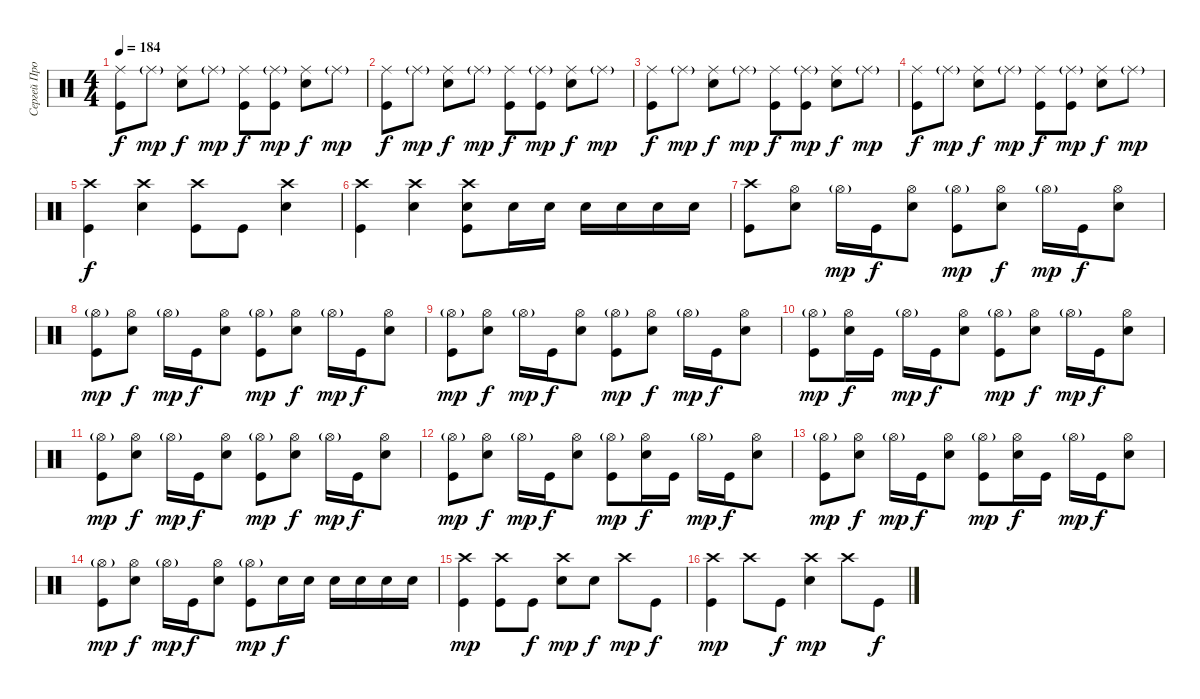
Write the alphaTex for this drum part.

\track ("Сергей Прокофьев" "Сергей Про") {instrument percussion}
\staff {score}
\articulation defaults
\ts (4 4)
\tempo 184
\clef neutral
\ks c
("Ride (middle)" "Kick (hit)").8{dy f} "Ride (middle)"{g}.8{dy mp} ("Ride (middle)" "Electric Snare (hit)").8{dy f} "Ride (middle)"{g}.8{dy mp} ("Ride (middle)" "Kick (hit)").8{dy f} ("Ride (middle)"{g} "Kick (hit)").8{dy mp} ("Ride (middle)" "Electric Snare (hit)").8{dy f} "Ride (middle)"{g}.8{dy mp} |
("Ride (middle)" "Kick (hit)").8{dy f} "Ride (middle)"{g}.8{dy mp} ("Ride (middle)" "Electric Snare (hit)").8{dy f} "Ride (middle)"{g}.8{dy mp} ("Ride (middle)" "Kick (hit)").8{dy f} ("Ride (middle)"{g} "Kick (hit)").8{dy mp} ("Ride (middle)" "Electric Snare (hit)").8{dy f} "Ride (middle)"{g}.8{dy mp} |
("Ride (middle)" "Kick (hit)").8{dy f} "Ride (middle)"{g}.8{dy mp} ("Ride (middle)" "Electric Snare (hit)").8{dy f} "Ride (middle)"{g}.8{dy mp} ("Ride (middle)" "Kick (hit)").8{dy f} ("Ride (middle)"{g} "Kick (hit)").8{dy mp} ("Ride (middle)" "Electric Snare (hit)").8{dy f} "Ride (middle)"{g}.8{dy mp} |
("Ride (middle)" "Kick (hit)").8{dy f} "Ride (middle)"{g}.8{dy mp} ("Ride (middle)" "Electric Snare (hit)").8{dy f} "Ride (middle)"{g}.8{dy mp} ("Ride (middle)" "Kick (hit)").8{dy f} ("Ride (middle)"{g} "Kick (hit)").8{dy mp} ("Ride (middle)" "Electric Snare (hit)").8{dy f} "Ride (middle)"{g}.8{dy mp} |
("Crash high (hit)" "Kick (hit)").4{dy f} ("Crash high (hit)" "Electric Snare (hit)").4 ("Crash high (hit)" "Kick (hit)").8 "Kick (hit)".8 ("Crash high (hit)" "Electric Snare (hit)").4 |
("Crash high (hit)" "Kick (hit)").4 ("Crash high (hit)" "Electric Snare (hit)").4 ("Crash high (hit)" "Electric Snare (hit)" "Kick (hit)").8 "Electric Snare (hit)".16 "Electric Snare (hit)".16 "Electric Snare (hit)".16 "Electric Snare (hit)".16 "Electric Snare (hit)".16 "Electric Snare (hit)".16 |
("Crash high (hit)" "Kick (hit)").8 ("Hi-Hat (open)" "Electric Snare (hit)").8 "Hi-Hat (open)"{g}.16{dy mp} "Kick (hit)".16{dy f} ("Hi-Hat (open)" "Electric Snare (hit)").8 ("Hi-Hat (open)"{g} "Kick (hit)").8{dy mp} ("Hi-Hat (open)" "Electric Snare (hit)").8{dy f} "Hi-Hat (open)"{g}.16{dy mp} "Kick (hit)".16{dy f} ("Hi-Hat (open)" "Electric Snare (hit)").8 |
("Hi-Hat (open)"{g} "Kick (hit)").8{dy mp} ("Hi-Hat (open)" "Electric Snare (hit)").8{dy f} "Hi-Hat (open)"{g}.16{dy mp} "Kick (hit)".16{dy f} ("Hi-Hat (open)" "Electric Snare (hit)").8 ("Hi-Hat (open)"{g} "Kick (hit)").8{dy mp} ("Hi-Hat (open)" "Electric Snare (hit)").8{dy f} "Hi-Hat (open)"{g}.16{dy mp} "Kick (hit)".16{dy f} ("Hi-Hat (open)" "Electric Snare (hit)").8 |
("Hi-Hat (open)"{g} "Kick (hit)").8{dy mp} ("Hi-Hat (open)" "Electric Snare (hit)").8{dy f} "Hi-Hat (open)"{g}.16{dy mp} "Kick (hit)".16{dy f} ("Hi-Hat (open)" "Electric Snare (hit)").8 ("Hi-Hat (open)"{g} "Kick (hit)").8{dy mp} ("Hi-Hat (open)" "Electric Snare (hit)").8{dy f} "Hi-Hat (open)"{g}.16{dy mp} "Kick (hit)".16{dy f} ("Hi-Hat (open)" "Electric Snare (hit)").8 |
("Hi-Hat (open)"{g} "Kick (hit)").8{dy mp} ("Hi-Hat (open)" "Electric Snare (hit)").16{dy f} "Kick (hit)".16 "Hi-Hat (open)"{g}.16{dy mp} "Kick (hit)".16{dy f} ("Hi-Hat (open)" "Electric Snare (hit)").8 ("Hi-Hat (open)"{g} "Kick (hit)").8{dy mp} ("Hi-Hat (open)" "Electric Snare (hit)").8{dy f} "Hi-Hat (open)"{g}.16{dy mp} "Kick (hit)".16{dy f} ("Hi-Hat (open)" "Electric Snare (hit)").8 |
("Hi-Hat (open)"{g} "Kick (hit)").8{dy mp} ("Hi-Hat (open)" "Electric Snare (hit)").8{dy f} "Hi-Hat (open)"{g}.16{dy mp} "Kick (hit)".16{dy f} ("Hi-Hat (open)" "Electric Snare (hit)").8 ("Hi-Hat (open)"{g} "Kick (hit)").8{dy mp} ("Hi-Hat (open)" "Electric Snare (hit)").8{dy f} "Hi-Hat (open)"{g}.16{dy mp} "Kick (hit)".16{dy f} ("Hi-Hat (open)" "Electric Snare (hit)").8 |
("Hi-Hat (open)"{g} "Kick (hit)").8{dy mp} ("Hi-Hat (open)" "Electric Snare (hit)").8{dy f} "Hi-Hat (open)"{g}.16{dy mp} "Kick (hit)".16{dy f} ("Hi-Hat (open)" "Electric Snare (hit)").8 ("Hi-Hat (open)"{g} "Kick (hit)").8{dy mp} ("Hi-Hat (open)" "Electric Snare (hit)").16{dy f} "Kick (hit)".16 "Hi-Hat (open)"{g}.16{dy mp} "Kick (hit)".16{dy f} ("Hi-Hat (open)" "Electric Snare (hit)").8 |
("Hi-Hat (open)"{g} "Kick (hit)").8{dy mp} ("Hi-Hat (open)" "Electric Snare (hit)").8{dy f} "Hi-Hat (open)"{g}.16{dy mp} "Kick (hit)".16{dy f} ("Hi-Hat (open)" "Electric Snare (hit)").8 ("Hi-Hat (open)"{g} "Kick (hit)").8{dy mp} ("Hi-Hat (open)" "Electric Snare (hit)").16{dy f} "Kick (hit)".16 "Hi-Hat (open)"{g}.16{dy mp} "Kick (hit)".16{dy f} ("Hi-Hat (open)" "Electric Snare (hit)").8 |
("Hi-Hat (open)"{g} "Kick (hit)").8{dy mp} ("Hi-Hat (open)" "Electric Snare (hit)").8{dy f} "Hi-Hat (open)"{g}.16{dy mp} "Kick (hit)".16{dy f} ("Hi-Hat (open)" "Electric Snare (hit)").8 ("Hi-Hat (open)"{g} "Kick (hit)").8{dy mp} "Electric Snare (hit)".16{dy f} "Electric Snare (hit)".16 "Electric Snare (hit)".16 "Electric Snare (hit)".16 "Electric Snare (hit)".16 "Electric Snare (hit)".16 |
("Crash high (hit)" "Kick (hit)").4{dy mp} ("Crash high (hit)" "Kick (hit)").8 "Kick (hit)".8{dy f} ("Crash high (hit)" "Electric Snare (hit)").8{dy mp} "Electric Snare (hit)".8{dy f} "Crash high (hit)".8{dy mp} "Kick (hit)".8{dy f} |
("Crash high (hit)" "Kick (hit)").4{dy mp} "Crash high (hit)".8 "Kick (hit)".8{dy f} ("Crash high (hit)" "Electric Snare (hit)").4{dy mp} "Crash high (hit)".8 "Kick (hit)".8{dy f}
